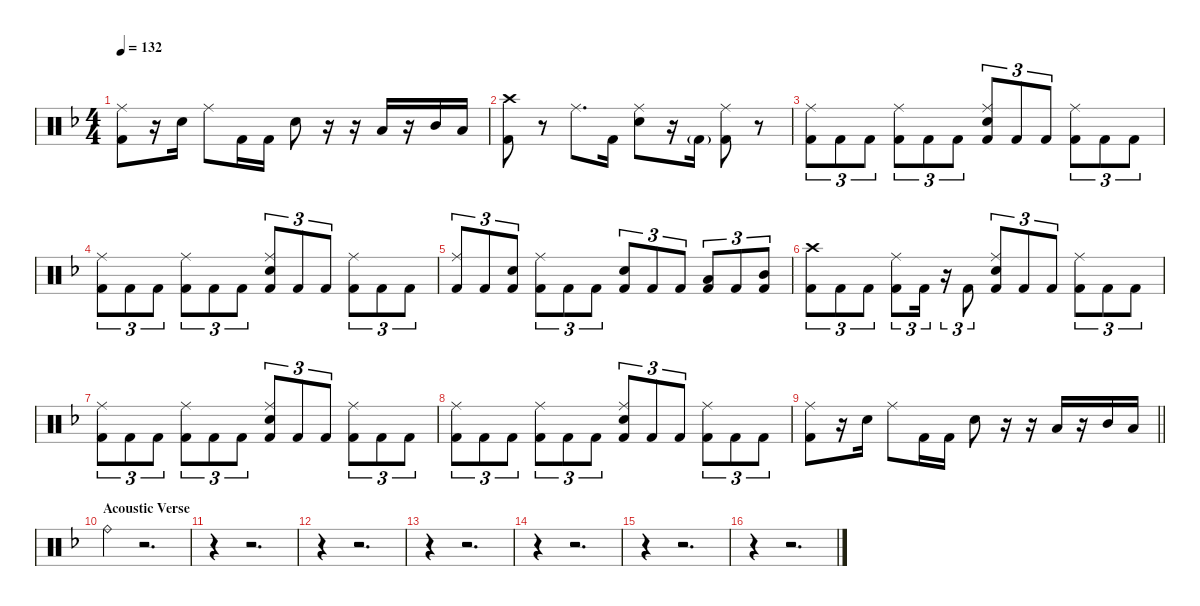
\defaultSystemsLayout 4
\hideDynamics
\bracketExtendMode nobrackets
\singleTrackTrackNamePolicy hidden
\multiTrackTrackNamePolicy hidden
\firstSystemTrackNameMode fullname
\firstSystemTrackNameOrientation horizontal
\otherSystemsTrackNameOrientation horizontal
\track ("Drums" "drm.") {instrument percussion}
\staff {score}
\articulation defaults
\ts (4 4)
\tempo 132
\clef neutral
\ks dminor
("Ride (middle)"{acc forcenatural} "Kick (hit) 2"{acc forcenatural}).8{dy f beam Down} r.16{beam Down} "Snare (hit) 2"{acc forcenatural}.16{beam Down} "Ride (middle)"{acc forcenatural}.8{beam Down} "Kick (hit) 2"{acc forcenatural}.16{beam Down} "Kick (hit) 2"{acc forcenatural}.16{beam Down} "Snare (hit) 2"{acc forcenatural}.8{beam Down} r.16{beam Down} r.16{beam Down} "Low Tom (hit)"{acc forcenatural}.16{beam Up} r.16{beam Up} "Mid Tom (hit)"{acc forcenatural}.16{beam Up} "Low Tom (hit)"{acc forcenatural}.16{beam Up} |
("Crash high (hit)"{acc forcenatural} "Kick (hit) 2"{acc forcenatural}).8{beam Down} r.8{beam Down} "Ride (middle)"{acc forcenatural}.8{d beam Down} "Kick (hit) 2"{acc forcenatural}.16{beam Down} ("Ride (middle)"{acc forcenatural} "Snare (hit) 2"{acc forcenatural}).8{beam Down} r.16{beam Down} "Kick (hit) 2"{g acc forcenatural}.16{dy mf beam Down} ("Ride (middle)"{acc forcenatural} "Kick (hit) 2"{acc forcenatural}).8{dy f beam Down} r.8{beam Down} |
("Ride (middle)"{acc forcenatural} "Kick (hit) 2"{acc forcenatural}).8{tu (3 2) beam Down} "Kick (hit) 2"{acc forcenatural}.8{tu (3 2) beam Down} "Kick (hit) 2"{acc forcenatural}.8{tu (3 2) beam Down} ("Ride (middle)"{acc forcenatural} "Kick (hit) 2"{acc forcenatural}).8{tu (3 2) beam Down} "Kick (hit) 2"{acc forcenatural}.8{tu (3 2) beam Down} "Kick (hit) 2"{acc forcenatural}.8{tu (3 2) beam Down} ("Ride (middle)"{acc forcenatural} "Snare (hit) 2"{acc forcenatural} "Kick (hit) 2"{acc forcenatural}).8{tu (3 2) beam Up} "Kick (hit) 2"{acc forcenatural}.8{tu (3 2) beam Up} "Kick (hit) 2"{acc forcenatural}.8{tu (3 2) beam Up} ("Ride (middle)"{acc forcenatural} "Kick (hit) 2"{acc forcenatural}).8{tu (3 2) beam Down} "Kick (hit) 2"{acc forcenatural}.8{tu (3 2) beam Down} "Kick (hit) 2"{acc forcenatural}.8{tu (3 2) beam Down} |
("Ride (middle)"{acc forcenatural} "Kick (hit) 2"{acc forcenatural}).8{tu (3 2) beam Down} "Kick (hit) 2"{acc forcenatural}.8{tu (3 2) beam Down} "Kick (hit) 2"{acc forcenatural}.8{tu (3 2) beam Down} ("Ride (middle)"{acc forcenatural} "Kick (hit) 2"{acc forcenatural}).8{tu (3 2) beam Down} "Kick (hit) 2"{acc forcenatural}.8{tu (3 2) beam Down} "Kick (hit) 2"{acc forcenatural}.8{tu (3 2) beam Down} ("Ride (middle)"{acc forcenatural} "Snare (hit) 2"{acc forcenatural} "Kick (hit) 2"{acc forcenatural}).8{tu (3 2) beam Up} "Kick (hit) 2"{acc forcenatural}.8{tu (3 2) beam Up} "Kick (hit) 2"{acc forcenatural}.8{tu (3 2) beam Up} ("Ride (middle)"{acc forcenatural} "Kick (hit) 2"{acc forcenatural}).8{tu (3 2) beam Down} "Kick (hit) 2"{acc forcenatural}.8{tu (3 2) beam Down} "Kick (hit) 2"{acc forcenatural}.8{tu (3 2) beam Down} |
("Ride (middle)"{acc forcenatural} "Kick (hit) 2"{acc forcenatural}).8{tu (3 2) beam Up} "Kick (hit) 2"{acc forcenatural}.8{tu (3 2) beam Up} ("Snare (hit) 2"{acc forcenatural} "Kick (hit) 2"{acc forcenatural}).8{tu (3 2) beam Up} ("Ride (middle)"{acc forcenatural} "Kick (hit) 2"{acc forcenatural}).8{tu (3 2) beam Down} "Kick (hit) 2"{acc forcenatural}.8{tu (3 2) beam Down} "Kick (hit) 2"{acc forcenatural}.8{tu (3 2) beam Down} ("Snare (hit) 2"{acc forcenatural} "Kick (hit) 2"{acc forcenatural}).8{tu (3 2) beam Up} "Kick (hit) 2"{acc forcenatural}.8{tu (3 2) beam Up} "Kick (hit) 2"{acc forcenatural}.8{tu (3 2) beam Up} ("Low Tom (hit)"{acc forcenatural} "Kick (hit) 2"{acc forcenatural}).8{tu (3 2) beam Up} "Kick (hit) 2"{acc forcenatural}.8{tu (3 2) beam Up} ("Mid Tom (hit)"{acc forcenatural} "Kick (hit) 2"{acc forcenatural}).8{tu (3 2) beam Up} |
("Crash high (hit)"{acc forcenatural} "Kick (hit) 2"{acc forcenatural}).8{tu (3 2) beam Down} "Kick (hit) 2"{acc forcenatural}.8{tu (3 2) beam Down} "Kick (hit) 2"{acc forcenatural}.8{tu (3 2) beam Down} ("Ride (middle)"{acc forcenatural} "Kick (hit) 2"{acc forcenatural}).8{tu (3 2) beam Down} "Kick (hit) 2"{acc forcenatural}.16{tu (3 2) beam Down} r.16{tu (3 2) beam Down} "Kick (hit) 2"{acc forcenatural}.8{tu (3 2) beam Up} ("Ride (middle)"{acc forcenatural} "Snare (hit) 2"{acc forcenatural} "Kick (hit) 2"{acc forcenatural}).8{tu (3 2) beam Up} "Kick (hit) 2"{acc forcenatural}.8{tu (3 2) beam Up} "Kick (hit) 2"{acc forcenatural}.8{tu (3 2) beam Up} ("Ride (middle)"{acc forcenatural} "Kick (hit) 2"{acc forcenatural}).8{tu (3 2) beam Down} "Kick (hit) 2"{acc forcenatural}.8{tu (3 2) beam Down} "Kick (hit) 2"{acc forcenatural}.8{tu (3 2) beam Down} |
("Ride (middle)"{acc forcenatural} "Kick (hit) 2"{acc forcenatural}).8{tu (3 2) beam Down} "Kick (hit) 2"{acc forcenatural}.8{tu (3 2) beam Down} "Kick (hit) 2"{acc forcenatural}.8{tu (3 2) beam Down} ("Ride (middle)"{acc forcenatural} "Kick (hit) 2"{acc forcenatural}).8{tu (3 2) beam Down} "Kick (hit) 2"{acc forcenatural}.8{tu (3 2) beam Down} "Kick (hit) 2"{acc forcenatural}.8{tu (3 2) beam Down} ("Ride (middle)"{acc forcenatural} "Snare (hit) 2"{acc forcenatural} "Kick (hit) 2"{acc forcenatural}).8{tu (3 2) beam Up} "Kick (hit) 2"{acc forcenatural}.8{tu (3 2) beam Up} "Kick (hit) 2"{acc forcenatural}.8{tu (3 2) beam Up} ("Ride (middle)"{acc forcenatural} "Kick (hit) 2"{acc forcenatural}).8{tu (3 2) beam Down} "Kick (hit) 2"{acc forcenatural}.8{tu (3 2) beam Down} "Kick (hit) 2"{acc forcenatural}.8{tu (3 2) beam Down} |
("Ride (middle)"{acc forcenatural} "Kick (hit) 2"{acc forcenatural}).8{tu (3 2) beam Down} "Kick (hit) 2"{acc forcenatural}.8{tu (3 2) beam Down} "Kick (hit) 2"{acc forcenatural}.8{tu (3 2) beam Down} ("Ride (middle)"{acc forcenatural} "Kick (hit) 2"{acc forcenatural}).8{tu (3 2) beam Down} "Kick (hit) 2"{acc forcenatural}.8{tu (3 2) beam Down} "Kick (hit) 2"{acc forcenatural}.8{tu (3 2) beam Down} ("Ride (middle)"{acc forcenatural} "Snare (hit) 2"{acc forcenatural} "Kick (hit) 2"{acc forcenatural}).8{tu (3 2) beam Up} "Kick (hit) 2"{acc forcenatural}.8{tu (3 2) beam Up} "Kick (hit) 2"{acc forcenatural}.8{tu (3 2) beam Up} ("Ride (middle)"{acc forcenatural} "Kick (hit) 2"{acc forcenatural}).8{tu (3 2) beam Down} "Kick (hit) 2"{acc forcenatural}.8{tu (3 2) beam Down} "Kick (hit) 2"{acc forcenatural}.8{tu (3 2) beam Down} |
\barLineRight lightlight
("Ride (middle)"{acc forcenatural} "Kick (hit) 2"{acc forcenatural}).8{beam Down} r.16{beam Down} "Snare (hit) 2"{acc forcenatural}.16{beam Down} "Ride (middle)"{acc forcenatural}.8{beam Down} "Kick (hit) 2"{acc forcenatural}.16{beam Down} "Kick (hit) 2"{acc forcenatural}.16{beam Down} "Snare (hit) 2"{acc forcenatural}.8{beam Down} r.16{beam Down} r.16{beam Down} "Low Tom (hit)"{acc forcenatural}.16{beam Up} r.16{beam Up} "Mid Tom (hit)"{acc forcenatural}.16{beam Up} "Low Tom (hit)"{acc forcenatural}.16{beam Up} |
\section ("" "Acoustic Verse")
"Ride (bell)"{acc forcenatural}.4{beam Down} r.2{d beam Down} |
r.4{beam Down} r.2{d beam Down} |
r.4{beam Down} r.2{d beam Down} |
r.4{beam Down} r.2{d beam Down} |
r.4{beam Down} r.2{d beam Down} |
r.4{beam Down} r.2{d beam Down} |
r.4{beam Down} r.2{d beam Down}
